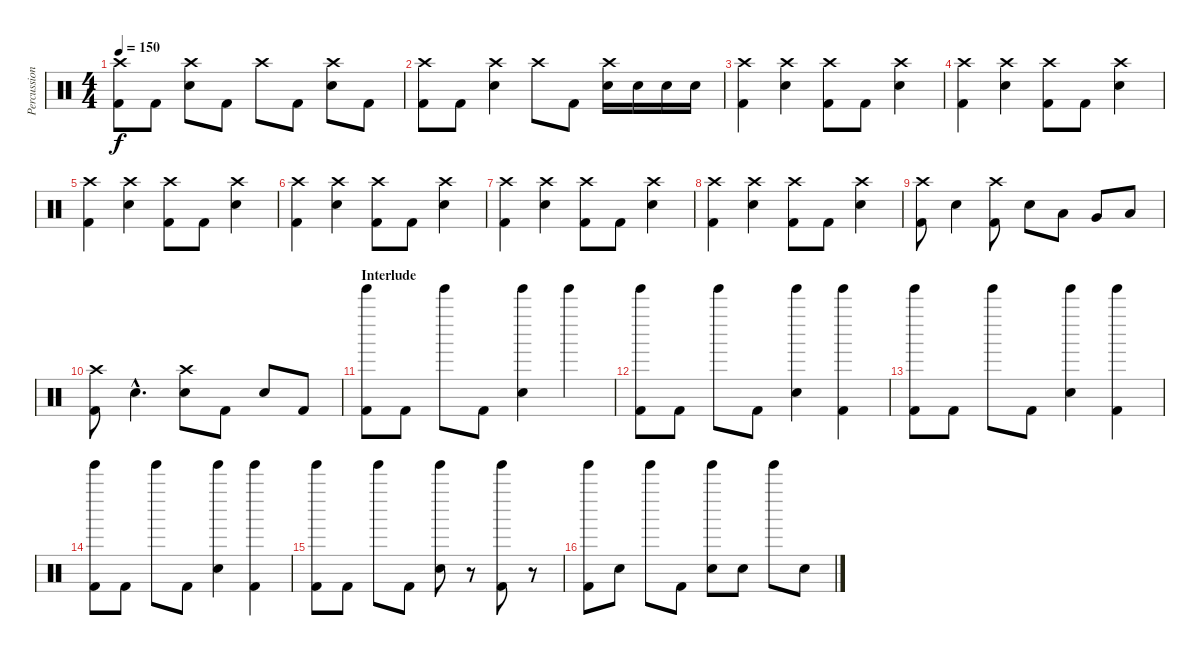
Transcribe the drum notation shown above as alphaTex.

\track ("Percussion" "Percussion") {instrument percussion}
\staff {score}
\articulation defaults
\ts (4 4)
\tempo 150
\clef neutral
\ks c
("Crash high (hit)" "Kick (hit) 2").8{dy f} "Kick (hit) 2".8 ("Crash high (hit)" "Electric Snare (hit)").8 "Kick (hit) 2".8 "Crash high (hit)".8 "Kick (hit) 2".8 ("Crash high (hit)" "Electric Snare (hit)").8 "Kick (hit) 2".8 |
("Crash high (hit)" "Kick (hit) 2").8 "Kick (hit) 2".8 ("Crash high (hit)" "Electric Snare (hit)").4 "Crash high (hit)".8 "Kick (hit) 2".8 ("Crash high (hit)" "Electric Snare (hit)").16 "Electric Snare (hit)".16 "Electric Snare (hit)".16 "Electric Snare (hit)".16 |
("Crash high (hit)" "Kick (hit) 2").4 ("Crash high (hit)" "Electric Snare (hit)").4 ("Crash high (hit)" "Kick (hit) 2").8 "Kick (hit) 2".8 ("Crash high (hit)" "Electric Snare (hit)").4 |
("Crash high (hit)" "Kick (hit) 2").4 ("Crash high (hit)" "Electric Snare (hit)").4 ("Crash high (hit)" "Kick (hit) 2").8 "Kick (hit) 2".8 ("Crash high (hit)" "Electric Snare (hit)").4 |
("Crash high (hit)" "Kick (hit) 2").4 ("Crash high (hit)" "Electric Snare (hit)").4 ("Crash high (hit)" "Kick (hit) 2").8 "Kick (hit) 2".8 ("Crash high (hit)" "Electric Snare (hit)").4 |
("Crash high (hit)" "Kick (hit) 2").4 ("Crash high (hit)" "Electric Snare (hit)").4 ("Crash high (hit)" "Kick (hit) 2").8 "Kick (hit) 2".8 ("Crash high (hit)" "Electric Snare (hit)").4 |
("Crash high (hit)" "Kick (hit) 2").4 ("Crash high (hit)" "Electric Snare (hit)").4 ("Crash high (hit)" "Kick (hit) 2").8 "Kick (hit) 2".8 ("Crash high (hit)" "Electric Snare (hit)").4 |
("Crash high (hit)" "Kick (hit) 2").4 ("Crash high (hit)" "Electric Snare (hit)").4 ("Crash high (hit)" "Kick (hit) 2").8 "Kick (hit) 2".8 ("Crash high (hit)" "Electric Snare (hit)").4 |
("Crash high (hit)" "Kick (hit) 2").8 "Electric Snare (hit)".4 ("Crash high (hit)" "Kick (hit) 2").8 "Electric Snare (hit)".8 "Low Tom (hit)".8 "Very Low Tom (hit)".8 "Low Floor Tom (hit)".8 |
("Crash high (hit)" "Kick (hit) 2").8 "Electric Snare (hit)"{hac}.4{d} ("Crash high (hit)" "Electric Snare (hit)").8 "Kick (hit) 2".8 "Electric Snare (hit)".8 "Kick (hit) 2".8 |
\section ("" "Interlude")
("Tinkle Bell (hit)" "Kick (hit) 2").8 "Kick (hit) 2".8 "Tinkle Bell (hit)".8 "Kick (hit) 2".8 ("Tinkle Bell (hit)" "Electric Snare (hit)").4 "Tinkle Bell (hit)".4 |
("Tinkle Bell (hit)" "Kick (hit) 2").8 "Kick (hit) 2".8 "Tinkle Bell (hit)".8 "Kick (hit) 2".8 ("Tinkle Bell (hit)" "Electric Snare (hit)").4 ("Tinkle Bell (hit)" "Kick (hit) 2").4 |
("Tinkle Bell (hit)" "Kick (hit) 2").8 "Kick (hit) 2".8 "Tinkle Bell (hit)".8 "Kick (hit) 2".8 ("Tinkle Bell (hit)" "Electric Snare (hit)").4 ("Tinkle Bell (hit)" "Kick (hit) 2").4 |
("Tinkle Bell (hit)" "Kick (hit) 2").8 "Kick (hit) 2".8 "Tinkle Bell (hit)".8 "Kick (hit) 2".8 ("Tinkle Bell (hit)" "Electric Snare (hit)").4 ("Tinkle Bell (hit)" "Kick (hit) 2").4 |
("Tinkle Bell (hit)" "Kick (hit) 2").8 "Kick (hit) 2".8 "Tinkle Bell (hit)".8 "Kick (hit) 2".8 ("Tinkle Bell (hit)" "Electric Snare (hit)").8 r.8 ("Tinkle Bell (hit)" "Kick (hit) 2").8 r.8 |
("Tinkle Bell (hit)" "Kick (hit) 2").8 "Electric Snare (hit)".8 "Tinkle Bell (hit)".8 "Kick (hit) 2".8 ("Tinkle Bell (hit)" "Electric Snare (hit)").8 "Electric Snare (hit)".8 "Tinkle Bell (hit)".8 "Electric Snare (hit)".8
